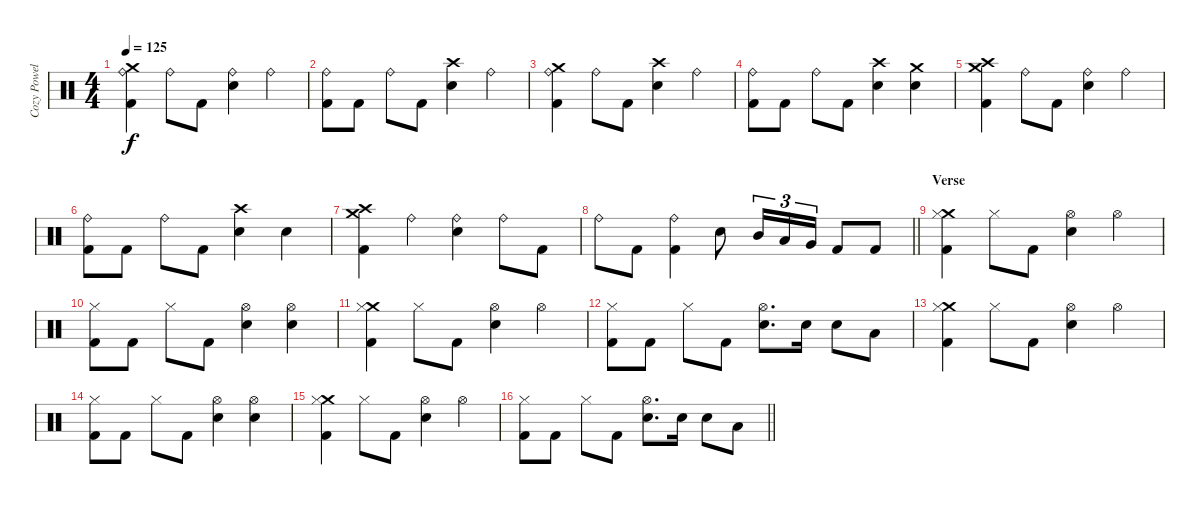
\track ("Cozy Powell " "Cozy Powel") {instrument percussion}
\staff {score}
\articulation defaults
\ts (4 4)
\tempo 125
\clef neutral
\ks c
("Crash medium (hit)" "Ride (bell)" "Kick (hit) 2").4{dy f} "Ride (bell)".8 "Kick (hit) 2".8 ("Ride (bell)" "Snare (hit) 2").4 "Ride (bell)".4 |
("Ride (bell)" "Kick (hit) 2").8 "Kick (hit) 2".8 "Ride (bell)".8 "Kick (hit) 2".8 ("Crash high (hit)" "Snare (hit) 2").4 "Ride (bell)".4 |
("Crash medium (hit)" "Ride (bell)" "Kick (hit) 2").4 "Ride (bell)".8 "Kick (hit) 2".8 ("Crash high (hit)" "Snare (hit) 2").4 "Ride (bell)".4 |
("Ride (bell)" "Kick (hit) 2").8 "Kick (hit) 2".8 "Ride (bell)".8 "Kick (hit) 2".8 ("Crash high (hit)" "Snare (hit) 2").4 ("Crash medium (hit)" "Snare (hit) 2").4 |
("Crash medium (hit)" "Crash high (hit)" "Kick (hit) 2").4 "Ride (bell)".8 "Kick (hit) 2".8 ("Ride (bell)" "Snare (hit) 2").4 "Ride (bell)".4 |
("Ride (bell)" "Kick (hit) 2").8 "Kick (hit) 2".8 "Ride (bell)".8 "Kick (hit) 2".8 ("Crash high (hit)" "Snare (hit) 2").4 "Snare (hit) 2".4 |
("Crash medium (hit)" "Crash high (hit)" "Kick (hit) 2").4 "Ride (bell)".4 ("Ride (bell)" "Snare (hit) 2").4 "Ride (bell)".8 "Kick (hit) 2".8 |
\barLineRight lightlight "Ride (bell)".8 "Kick (hit) 2".8
("Ride (bell)" "Kick (hit) 2").4 "Snare (hit) 2".8 "Mid Tom (hit)".16{tu (3 2)} "Low Tom (hit)".16{tu (3 2)} "Very Low Tom (hit)".16{tu (3 2)} "Kick (hit) 2".8 "Kick (hit) 2".8 |
\section ("" "Verse")
("Crash medium (hit)" "Hi-Hat (closed)" "Kick (hit) 2").4 "Hi-Hat (closed)".8 "Kick (hit) 2".8 ("Hi-Hat (open)" "Snare (hit) 2").4 "Hi-Hat (open)".4 |
("Hi-Hat (closed)" "Kick (hit) 2").8 "Kick (hit) 2".8 "Hi-Hat (closed)".8 "Kick (hit) 2".8 ("Hi-Hat (open)" "Snare (hit) 2").4 ("Hi-Hat (open)" "Snare (hit) 2").4 |
("Crash medium (hit)" "Hi-Hat (closed)" "Kick (hit) 2").4 "Hi-Hat (closed)".8 "Kick (hit) 2".8 ("Hi-Hat (open)" "Snare (hit) 2").4 "Hi-Hat (open)".4 |
("Hi-Hat (closed)" "Kick (hit) 2").8 "Kick (hit) 2".8 "Hi-Hat (closed)".8 "Kick (hit) 2".8 ("Hi-Hat (open)" "Snare (hit) 2").8{d} "Snare (hit) 2".16 "Snare (hit) 2".8 "Low Tom (hit)".8 |
("Crash medium (hit)" "Hi-Hat (closed)" "Kick (hit) 2").4 "Hi-Hat (closed)".8 "Kick (hit) 2".8 ("Hi-Hat (open)" "Snare (hit) 2").4 "Hi-Hat (open)".4 |
("Hi-Hat (closed)" "Kick (hit) 2").8 "Kick (hit) 2".8 "Hi-Hat (closed)".8 "Kick (hit) 2".8 ("Hi-Hat (open)" "Snare (hit) 2").4 ("Hi-Hat (open)" "Snare (hit) 2").4 |
("Crash medium (hit)" "Hi-Hat (closed)" "Kick (hit) 2").4 "Hi-Hat (closed)".8 "Kick (hit) 2".8 ("Hi-Hat (open)" "Snare (hit) 2").4 "Hi-Hat (open)".4 |
\barLineRight lightlight
("Hi-Hat (closed)" "Kick (hit) 2").8 "Kick (hit) 2".8 "Hi-Hat (closed)".8 "Kick (hit) 2".8 ("Hi-Hat (open)" "Snare (hit) 2").8{d} "Snare (hit) 2".16 "Snare (hit) 2".8 "Low Tom (hit)".8
